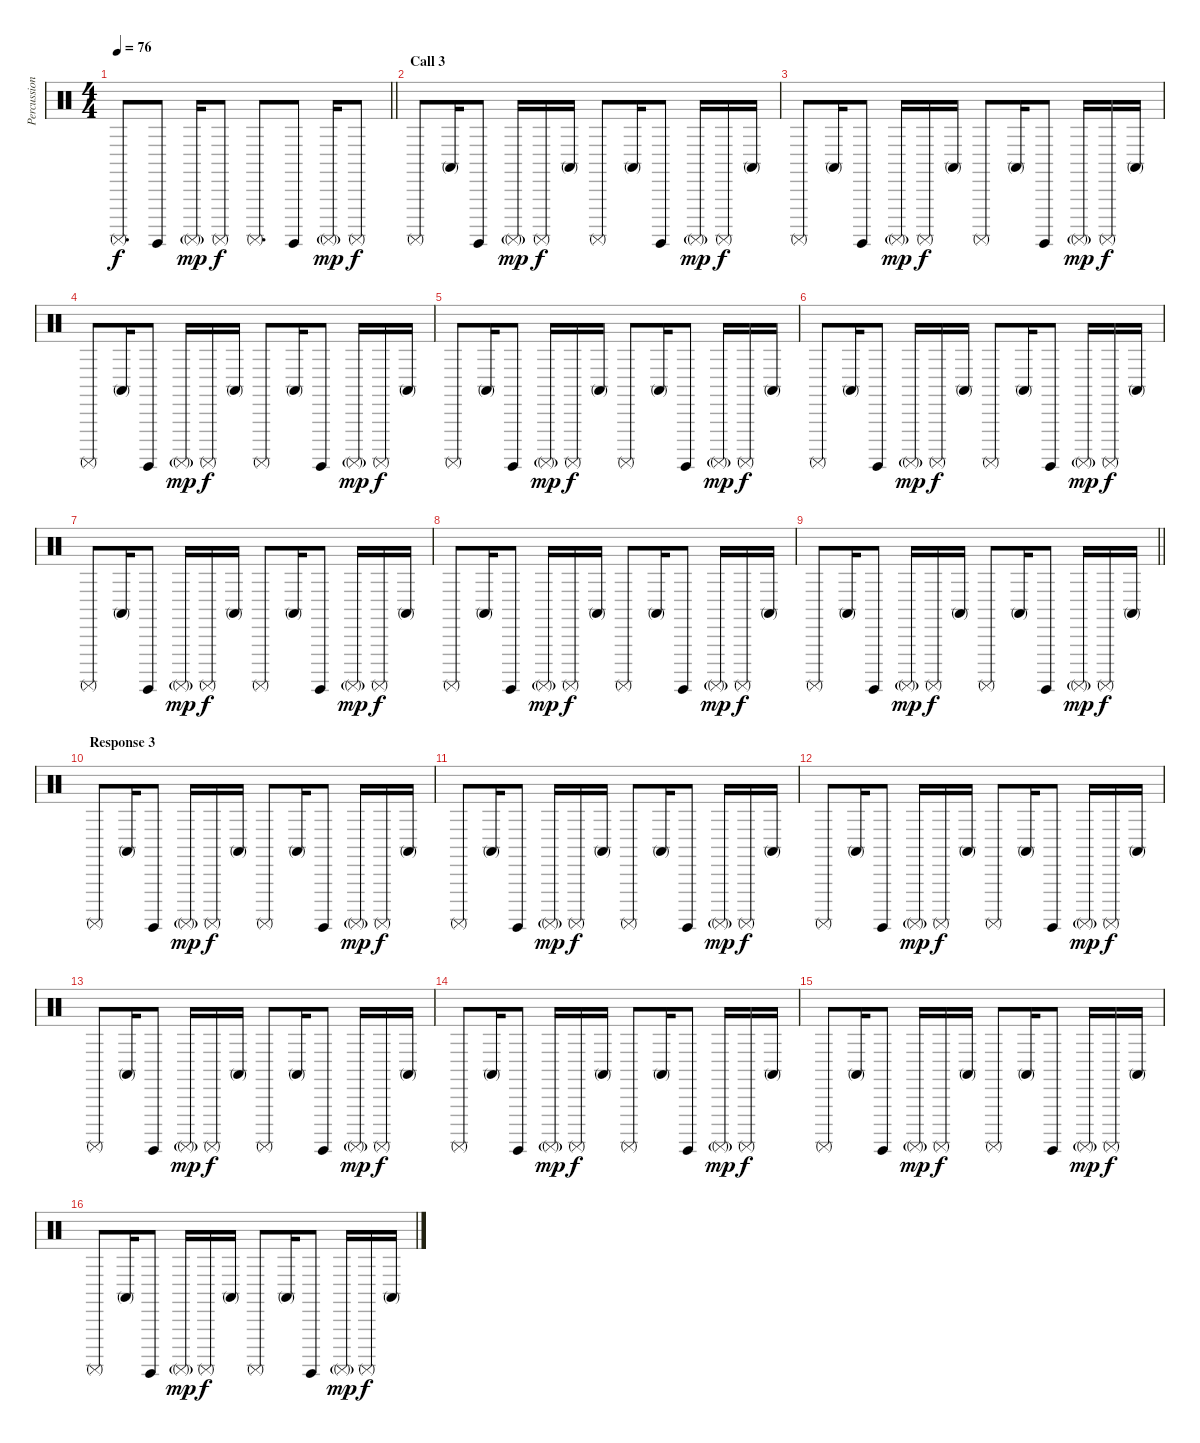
\track ("Percussion" "Percussion") {instrument percussion}
\staff {score}
\articulation defaults
\ts (4 4)
\tempo 76
\clef neutral
\barLineRight lightlight
\ks c "Surdo (mute)".8{d dy f} "Surdo (hit)".8 "Surdo (mute)"{g}.16{dy mp} "Surdo (mute)".8{dy f} "Surdo (mute)".8{d} "Surdo (hit)".8 "Surdo (mute)"{g}.16{dy mp} "Surdo (mute)".8{dy f}
|
\section ("" "Call 3")
"Surdo (mute)".8 "Conga high (mute)".16 "Surdo (hit)".8 "Surdo (mute)"{g}.16{dy mp} "Surdo (mute)".16{dy f} "Conga high (mute)".16 "Surdo (mute)".8 "Conga high (mute)".16 "Surdo (hit)".8 "Surdo (mute)"{g}.16{dy mp} "Surdo (mute)".16{dy f} "Conga high (mute)".16 |
"Surdo (mute)".8 "Conga high (mute)".16 "Surdo (hit)".8 "Surdo (mute)"{g}.16{dy mp} "Surdo (mute)".16{dy f} "Conga high (mute)".16 "Surdo (mute)".8 "Conga high (mute)".16 "Surdo (hit)".8 "Surdo (mute)"{g}.16{dy mp} "Surdo (mute)".16{dy f} "Conga high (mute)".16 |
"Surdo (mute)".8 "Conga high (mute)".16 "Surdo (hit)".8 "Surdo (mute)"{g}.16{dy mp} "Surdo (mute)".16{dy f} "Conga high (mute)".16 "Surdo (mute)".8 "Conga high (mute)".16 "Surdo (hit)".8 "Surdo (mute)"{g}.16{dy mp} "Surdo (mute)".16{dy f} "Conga high (mute)".16 |
"Surdo (mute)".8 "Conga high (mute)".16 "Surdo (hit)".8 "Surdo (mute)"{g}.16{dy mp} "Surdo (mute)".16{dy f} "Conga high (mute)".16 "Surdo (mute)".8 "Conga high (mute)".16 "Surdo (hit)".8 "Surdo (mute)"{g}.16{dy mp} "Surdo (mute)".16{dy f} "Conga high (mute)".16 |
"Surdo (mute)".8 "Conga high (mute)".16 "Surdo (hit)".8 "Surdo (mute)"{g}.16{dy mp} "Surdo (mute)".16{dy f} "Conga high (mute)".16 "Surdo (mute)".8 "Conga high (mute)".16 "Surdo (hit)".8 "Surdo (mute)"{g}.16{dy mp} "Surdo (mute)".16{dy f} "Conga high (mute)".16 |
"Surdo (mute)".8 "Conga high (mute)".16 "Surdo (hit)".8 "Surdo (mute)"{g}.16{dy mp} "Surdo (mute)".16{dy f} "Conga high (mute)".16 "Surdo (mute)".8 "Conga high (mute)".16 "Surdo (hit)".8 "Surdo (mute)"{g}.16{dy mp} "Surdo (mute)".16{dy f} "Conga high (mute)".16 |
"Surdo (mute)".8 "Conga high (mute)".16 "Surdo (hit)".8 "Surdo (mute)"{g}.16{dy mp} "Surdo (mute)".16{dy f} "Conga high (mute)".16 "Surdo (mute)".8 "Conga high (mute)".16 "Surdo (hit)".8 "Surdo (mute)"{g}.16{dy mp} "Surdo (mute)".16{dy f} "Conga high (mute)".16 |
\barLineRight lightlight "Surdo (mute)".8 "Conga high (mute)".16 "Surdo (hit)".8 "Surdo (mute)"{g}.16{dy mp} "Surdo (mute)".16{dy f} "Conga high (mute)".16 "Surdo (mute)".8 "Conga high (mute)".16 "Surdo (hit)".8 "Surdo (mute)"{g}.16{dy mp} "Surdo (mute)".16{dy f} "Conga high (mute)".16
|
\section ("" "Response 3")
"Surdo (mute)".8 "Conga high (mute)".16 "Surdo (hit)".8 "Surdo (mute)"{g}.16{dy mp} "Surdo (mute)".16{dy f} "Conga high (mute)".16 "Surdo (mute)".8 "Conga high (mute)".16 "Surdo (hit)".8 "Surdo (mute)"{g}.16{dy mp} "Surdo (mute)".16{dy f} "Conga high (mute)".16 |
"Surdo (mute)".8 "Conga high (mute)".16 "Surdo (hit)".8 "Surdo (mute)"{g}.16{dy mp} "Surdo (mute)".16{dy f} "Conga high (mute)".16 "Surdo (mute)".8 "Conga high (mute)".16 "Surdo (hit)".8 "Surdo (mute)"{g}.16{dy mp} "Surdo (mute)".16{dy f} "Conga high (mute)".16 |
"Surdo (mute)".8 "Conga high (mute)".16 "Surdo (hit)".8 "Surdo (mute)"{g}.16{dy mp} "Surdo (mute)".16{dy f} "Conga high (mute)".16 "Surdo (mute)".8 "Conga high (mute)".16 "Surdo (hit)".8 "Surdo (mute)"{g}.16{dy mp} "Surdo (mute)".16{dy f} "Conga high (mute)".16 |
"Surdo (mute)".8 "Conga high (mute)".16 "Surdo (hit)".8 "Surdo (mute)"{g}.16{dy mp} "Surdo (mute)".16{dy f} "Conga high (mute)".16 "Surdo (mute)".8 "Conga high (mute)".16 "Surdo (hit)".8 "Surdo (mute)"{g}.16{dy mp} "Surdo (mute)".16{dy f} "Conga high (mute)".16 |
"Surdo (mute)".8 "Conga high (mute)".16 "Surdo (hit)".8 "Surdo (mute)"{g}.16{dy mp} "Surdo (mute)".16{dy f} "Conga high (mute)".16 "Surdo (mute)".8 "Conga high (mute)".16 "Surdo (hit)".8 "Surdo (mute)"{g}.16{dy mp} "Surdo (mute)".16{dy f} "Conga high (mute)".16 |
"Surdo (mute)".8 "Conga high (mute)".16 "Surdo (hit)".8 "Surdo (mute)"{g}.16{dy mp} "Surdo (mute)".16{dy f} "Conga high (mute)".16 "Surdo (mute)".8 "Conga high (mute)".16 "Surdo (hit)".8 "Surdo (mute)"{g}.16{dy mp} "Surdo (mute)".16{dy f} "Conga high (mute)".16 |
"Surdo (mute)".8 "Conga high (mute)".16 "Surdo (hit)".8 "Surdo (mute)"{g}.16{dy mp} "Surdo (mute)".16{dy f} "Conga high (mute)".16 "Surdo (mute)".8 "Conga high (mute)".16 "Surdo (hit)".8 "Surdo (mute)"{g}.16{dy mp} "Surdo (mute)".16{dy f} "Conga high (mute)".16
